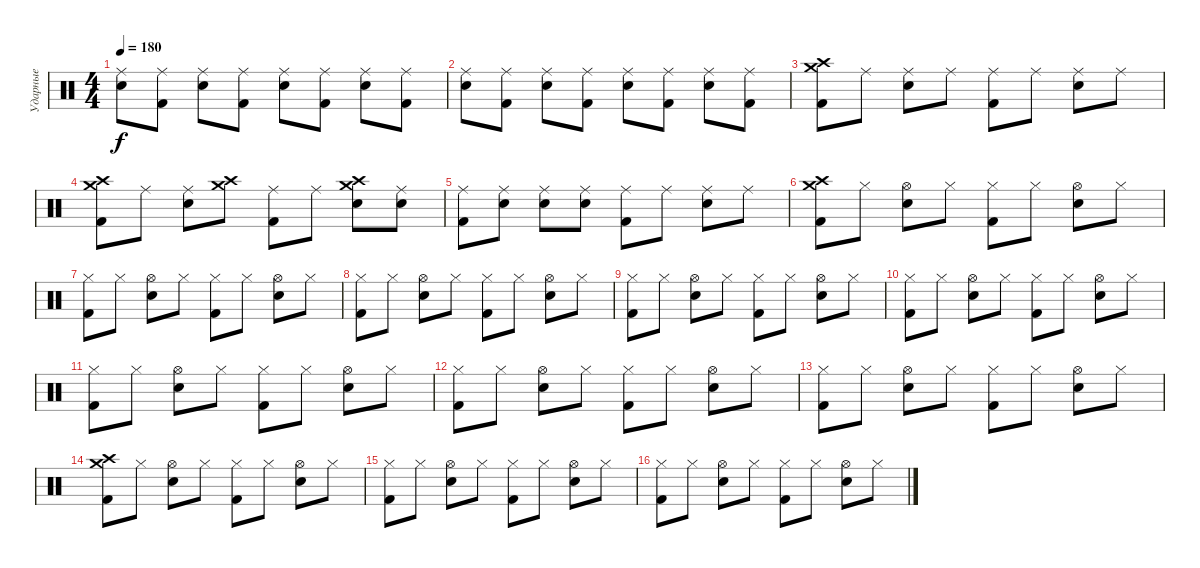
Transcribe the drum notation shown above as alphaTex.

\track ("Ударные" "Ударные") {instrument percussion}
\staff {score}
\articulation defaults
\ts (4 4)
\tempo 180
\clef neutral
\ks c
("Ride (middle)" "Snare (hit) 2").8{dy f} ("Ride (middle)" "Kick (hit) 2").8 ("Ride (middle)" "Snare (hit) 2").8 ("Ride (middle)" "Kick (hit) 2").8 ("Ride (middle)" "Snare (hit) 2").8 ("Ride (middle)" "Kick (hit) 2").8 ("Ride (middle)" "Snare (hit) 2").8 ("Ride (middle)" "Kick (hit) 2").8 |
("Ride (middle)" "Snare (hit) 2").8 ("Ride (middle)" "Kick (hit) 2").8 ("Ride (middle)" "Snare (hit) 2").8 ("Ride (middle)" "Kick (hit) 2").8 ("Ride (middle)" "Snare (hit) 2").8 ("Ride (middle)" "Kick (hit) 2").8 ("Ride (middle)" "Snare (hit) 2").8 ("Ride (middle)" "Kick (hit) 2").8 |
("Crash high (hit)" "Crash medium (hit)" "Kick (hit) 2").8 "Ride (middle)".8 ("Ride (middle)" "Snare (hit) 2").8 "Ride (middle)".8 ("Ride (middle)" "Kick (hit) 2").8 "Ride (middle)".8 ("Ride (middle)" "Snare (hit) 2").8 "Ride (middle)".8 |
("Crash high (hit)" "Crash medium (hit)" "Kick (hit) 2").8 "Ride (middle)".8 ("Ride (middle)" "Snare (hit) 2").8 ("Crash high (hit)" "Crash medium (hit)").8 ("Ride (middle)" "Kick (hit) 2").8 "Ride (middle)".8 ("Crash high (hit)" "Snare (hit) 2" "Crash medium (hit)").8 ("Ride (middle)" "Snare (hit) 2").8 |
("Ride (middle)" "Kick (hit) 2").8 ("Ride (middle)" "Snare (hit) 2").8 ("Ride (middle)" "Snare (hit) 2").8 ("Ride (middle)" "Snare (hit) 2").8 ("Ride (middle)" "Kick (hit) 2").8 "Ride (middle)".8 ("Ride (middle)" "Snare (hit) 2").8 "Ride (middle)".8 |
("Crash high (hit)" "Crash medium (hit)" "Kick (hit) 2").8 "Hi-Hat (closed)".8 ("Hi-Hat (open)" "Snare (hit) 2").8 "Hi-Hat (closed)".8 ("Hi-Hat (closed)" "Kick (hit) 2").8 "Hi-Hat (closed)".8 ("Hi-Hat (open)" "Snare (hit) 2").8 "Hi-Hat (closed)".8 |
("Hi-Hat (closed)" "Kick (hit) 2").8 "Hi-Hat (closed)".8 ("Hi-Hat (open)" "Snare (hit) 2").8 "Hi-Hat (closed)".8 ("Hi-Hat (closed)" "Kick (hit) 2").8 "Hi-Hat (closed)".8 ("Hi-Hat (open)" "Snare (hit) 2").8 "Hi-Hat (closed)".8 |
("Hi-Hat (closed)" "Kick (hit) 2").8 "Hi-Hat (closed)".8 ("Hi-Hat (open)" "Snare (hit) 2").8 "Hi-Hat (closed)".8 ("Hi-Hat (closed)" "Kick (hit) 2").8 "Hi-Hat (closed)".8 ("Hi-Hat (open)" "Snare (hit) 2").8 "Hi-Hat (closed)".8 |
("Hi-Hat (closed)" "Kick (hit) 2").8 "Hi-Hat (closed)".8 ("Hi-Hat (open)" "Snare (hit) 2").8 "Hi-Hat (closed)".8 ("Hi-Hat (closed)" "Kick (hit) 2").8 "Hi-Hat (closed)".8 ("Hi-Hat (open)" "Snare (hit) 2").8 "Hi-Hat (closed)".8 |
("Hi-Hat (closed)" "Kick (hit) 2").8 "Hi-Hat (closed)".8 ("Hi-Hat (open)" "Snare (hit) 2").8 "Hi-Hat (closed)".8 ("Hi-Hat (closed)" "Kick (hit) 2").8 "Hi-Hat (closed)".8 ("Hi-Hat (open)" "Snare (hit) 2").8 "Hi-Hat (closed)".8 |
("Hi-Hat (closed)" "Kick (hit) 2").8 "Hi-Hat (closed)".8 ("Hi-Hat (open)" "Snare (hit) 2").8 "Hi-Hat (closed)".8 ("Hi-Hat (closed)" "Kick (hit) 2").8 "Hi-Hat (closed)".8 ("Hi-Hat (open)" "Snare (hit) 2").8 "Hi-Hat (closed)".8 |
("Hi-Hat (closed)" "Kick (hit) 2").8 "Hi-Hat (closed)".8 ("Hi-Hat (open)" "Snare (hit) 2").8 "Hi-Hat (closed)".8 ("Hi-Hat (closed)" "Kick (hit) 2").8 "Hi-Hat (closed)".8 ("Hi-Hat (open)" "Snare (hit) 2").8 "Hi-Hat (closed)".8 |
("Hi-Hat (closed)" "Kick (hit) 2").8 "Hi-Hat (closed)".8 ("Hi-Hat (open)" "Snare (hit) 2").8 "Hi-Hat (closed)".8 ("Hi-Hat (closed)" "Kick (hit) 2").8 "Hi-Hat (closed)".8 ("Hi-Hat (open)" "Snare (hit) 2").8 "Hi-Hat (closed)".8 |
("Crash high (hit)" "Crash medium (hit)" "Kick (hit) 2").8 "Hi-Hat (closed)".8 ("Hi-Hat (open)" "Snare (hit) 2").8 "Hi-Hat (closed)".8 ("Hi-Hat (closed)" "Kick (hit) 2").8 "Hi-Hat (closed)".8 ("Hi-Hat (open)" "Snare (hit) 2").8 "Hi-Hat (closed)".8 |
("Hi-Hat (closed)" "Kick (hit) 2").8 "Hi-Hat (closed)".8 ("Hi-Hat (open)" "Snare (hit) 2").8 "Hi-Hat (closed)".8 ("Hi-Hat (closed)" "Kick (hit) 2").8 "Hi-Hat (closed)".8 ("Hi-Hat (open)" "Snare (hit) 2").8 "Hi-Hat (closed)".8 |
("Hi-Hat (closed)" "Kick (hit) 2").8 "Hi-Hat (closed)".8 ("Hi-Hat (open)" "Snare (hit) 2").8 "Hi-Hat (closed)".8 ("Hi-Hat (closed)" "Kick (hit) 2").8 "Hi-Hat (closed)".8 ("Hi-Hat (open)" "Snare (hit) 2").8 "Hi-Hat (closed)".8
